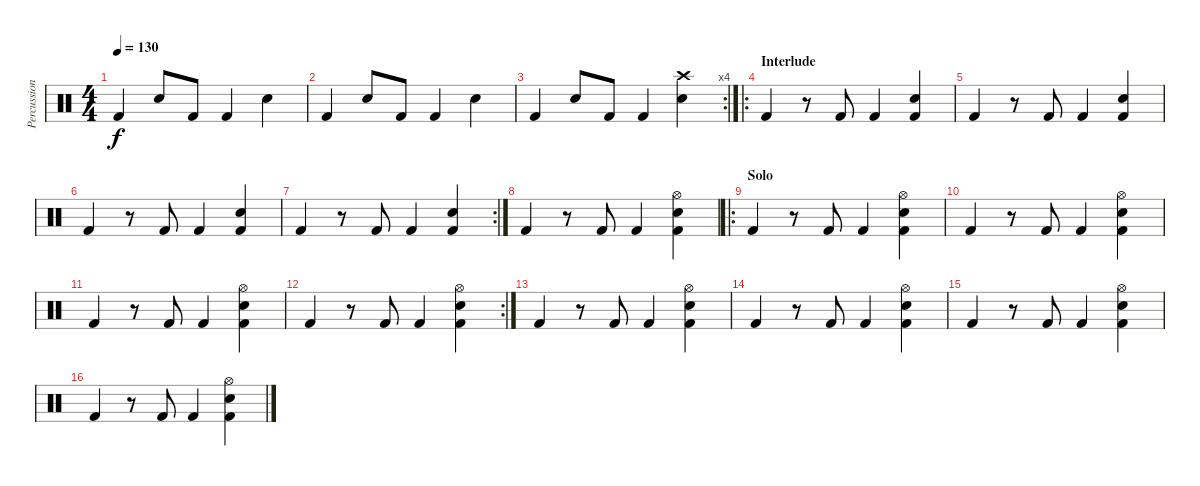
\track ("Percussions" "Percussion") {instrument percussion}
\staff {score}
\articulation defaults
\ts (4 4)
\tempo 130
\clef neutral
\ks c "Kick (hit) 2".4{dy f} "Snare (hit) 2".8 "Kick (hit) 2".8 "Kick (hit) 2".4 "Snare (hit) 2".4
|
"Kick (hit) 2".4 "Snare (hit) 2".8 "Kick (hit) 2".8 "Kick (hit) 2".4 "Snare (hit) 2".4 |
\rc 4 "Kick (hit) 2".4 "Snare (hit) 2".8 "Kick (hit) 2".8 "Kick (hit) 2".4
("Snare (hit) 2" "Crash high (hit)").4 |
\ro
\section ("" "Interlude")
"Kick (hit) 2".4 r.8 "Kick (hit) 2".8 "Kick (hit) 2".4 ("Snare (hit) 2" "Kick (hit) 2").4 |
"Kick (hit) 2".4 r.8 "Kick (hit) 2".8 "Kick (hit) 2".4 ("Snare (hit) 2" "Kick (hit) 2").4 |
"Kick (hit) 2".4 r.8 "Kick (hit) 2".8 "Kick (hit) 2".4 ("Snare (hit) 2" "Kick (hit) 2").4 |
\rc 2 "Kick (hit) 2".4
r.8 "Kick (hit) 2".8 "Kick (hit) 2".4 ("Snare (hit) 2" "Kick (hit) 2").4 |
"Kick (hit) 2".4 r.8 "Kick (hit) 2".8 "Kick (hit) 2".4 ("Snare (hit) 2" "Kick (hit) 2" "Hi-Hat (open)").4 |
\ro
\section ("" "Solo")
"Kick (hit) 2".4 r.8 "Kick (hit) 2".8 "Kick (hit) 2".4 ("Snare (hit) 2" "Kick (hit) 2" "Hi-Hat (open)").4 |
"Kick (hit) 2".4 r.8 "Kick (hit) 2".8 "Kick (hit) 2".4 ("Snare (hit) 2" "Kick (hit) 2" "Hi-Hat (open)").4 |
"Kick (hit) 2".4 r.8 "Kick (hit) 2".8 "Kick (hit) 2".4 ("Snare (hit) 2" "Kick (hit) 2" "Hi-Hat (open)").4 |
\rc 2 "Kick (hit) 2".4
r.8 "Kick (hit) 2".8 "Kick (hit) 2".4 ("Snare (hit) 2" "Kick (hit) 2" "Hi-Hat (open)").4 |
"Kick (hit) 2".4 r.8 "Kick (hit) 2".8 "Kick (hit) 2".4 ("Snare (hit) 2" "Kick (hit) 2" "Hi-Hat (open)").4 |
"Kick (hit) 2".4 r.8 "Kick (hit) 2".8 "Kick (hit) 2".4 ("Snare (hit) 2" "Kick (hit) 2" "Hi-Hat (open)").4 |
"Kick (hit) 2".4 r.8 "Kick (hit) 2".8 "Kick (hit) 2".4 ("Snare (hit) 2" "Kick (hit) 2" "Hi-Hat (open)").4 |
"Kick (hit) 2".4 r.8 "Kick (hit) 2".8 "Kick (hit) 2".4 ("Snare (hit) 2" "Kick (hit) 2" "Hi-Hat (open)").4
